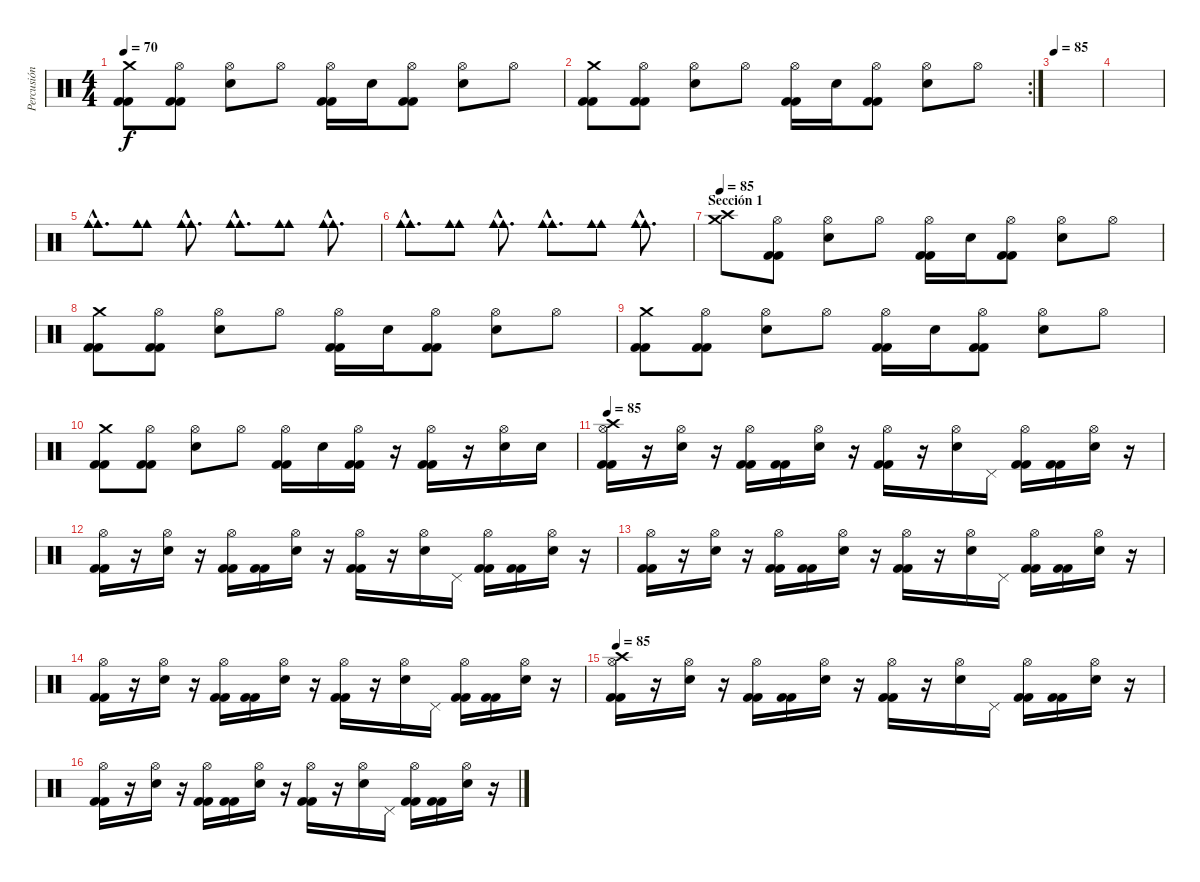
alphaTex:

\track ("Percusión" "Percusión") {instrument percussion}
\staff {score}
\articulation defaults
\ts (4 4)
\tempo 70
\clef neutral
\ks c
("Crash medium (hit)" "Kick (hit) 2" "Kick (hit) 2").8{dy f} ("Hi-Hat (open)" "Kick (hit) 2" "Kick (hit) 2").8 ("Hi-Hat (open)" "Electric Snare (hit)").8 "Hi-Hat (open)".8 ("Hi-Hat (open)" "Kick (hit) 2" "Kick (hit) 2").16 "Electric Snare (hit)".16 ("Hi-Hat (open)" "Kick (hit) 2" "Kick (hit) 2").8 ("Hi-Hat (open)" "Electric Snare (hit)").8 "Hi-Hat (open)".8 |
\rc 2
("Crash medium (hit)" "Kick (hit) 2" "Kick (hit) 2").8 ("Hi-Hat (open)" "Kick (hit) 2" "Kick (hit) 2").8 ("Hi-Hat (open)" "Electric Snare (hit)").8 "Hi-Hat (open)".8 ("Hi-Hat (open)" "Kick (hit) 2" "Kick (hit) 2").16 "Electric Snare (hit)".16 ("Hi-Hat (open)" "Kick (hit) 2" "Kick (hit) 2").8 ("Hi-Hat (open)" "Electric Snare (hit)").8 "Hi-Hat (open)".8 |
\tempo 85
|
|
("Cowbell medium (hit)"{hac} "Cowbell medium (hit)"{hac}).8{d} ("Cowbell medium (hit)" "Cowbell medium (hit)").8 ("Cowbell medium (hit)"{hac} "Cowbell medium (hit)"{hac}).8{d} ("Cowbell medium (hit)"{hac} "Cowbell medium (hit)"{hac}).8{d} ("Cowbell medium (hit)" "Cowbell medium (hit)").8 ("Cowbell medium (hit)"{hac} "Cowbell medium (hit)"{hac}).8{d} |
("Cowbell medium (hit)"{hac} "Cowbell medium (hit)"{hac}).8{d} ("Cowbell medium (hit)" "Cowbell medium (hit)").8 ("Cowbell medium (hit)"{hac} "Cowbell medium (hit)"{hac}).8{d} ("Cowbell medium (hit)"{hac} "Cowbell medium (hit)"{hac}).8{d} ("Cowbell medium (hit)" "Cowbell medium (hit)").8 ("Cowbell medium (hit)"{hac} "Cowbell medium (hit)"{hac}).8{d} |
\section ("" "Sección 1")
\tempo 85
("Crash high (hit)" "Crash medium (hit)").8 ("Hi-Hat (open)" "Kick (hit) 2" "Kick (hit) 2").8 ("Hi-Hat (open)" "Electric Snare (hit)").8 "Hi-Hat (open)".8 ("Hi-Hat (open)" "Kick (hit) 2" "Kick (hit) 2").16 "Electric Snare (hit)".16 ("Hi-Hat (open)" "Kick (hit) 2" "Kick (hit) 2").8 ("Hi-Hat (open)" "Electric Snare (hit)").8 "Hi-Hat (open)".8 |
("Crash medium (hit)" "Kick (hit) 2" "Kick (hit) 2").8 ("Hi-Hat (open)" "Kick (hit) 2" "Kick (hit) 2").8 ("Hi-Hat (open)" "Electric Snare (hit)").8 "Hi-Hat (open)".8 ("Hi-Hat (open)" "Kick (hit) 2" "Kick (hit) 2").16 "Electric Snare (hit)".16 ("Hi-Hat (open)" "Kick (hit) 2" "Kick (hit) 2").8 ("Hi-Hat (open)" "Electric Snare (hit)").8 "Hi-Hat (open)".8 |
("Crash medium (hit)" "Kick (hit) 2" "Kick (hit) 2").8 ("Hi-Hat (open)" "Kick (hit) 2" "Kick (hit) 2").8 ("Hi-Hat (open)" "Electric Snare (hit)").8 "Hi-Hat (open)".8 ("Hi-Hat (open)" "Kick (hit) 2" "Kick (hit) 2").16 "Electric Snare (hit)".16 ("Hi-Hat (open)" "Kick (hit) 2" "Kick (hit) 2").8 ("Hi-Hat (open)" "Electric Snare (hit)").8 "Hi-Hat (open)".8 |
("Crash medium (hit)" "Kick (hit) 2" "Kick (hit) 2").8 ("Hi-Hat (open)" "Kick (hit) 2" "Kick (hit) 2").8 ("Hi-Hat (open)" "Electric Snare (hit)").8 "Hi-Hat (open)".8 ("Hi-Hat (open)" "Kick (hit) 2" "Kick (hit) 2").16 "Electric Snare (hit)".16 ("Hi-Hat (open)" "Kick (hit) 2" "Kick (hit) 2").16 r.16 ("Hi-Hat (open)" "Kick (hit) 2" "Kick (hit) 2").16 r.16 ("Hi-Hat (open)" "Electric Snare (hit)").16 "Electric Snare (hit)".16 |
\tempo 85
("Crash high (hit)" "Hi-Hat (open)" "Kick (hit) 2" "Kick (hit) 2").16 r.16 ("Snare (hit) 2" "Hi-Hat (open)").16 r.16 ("Hi-Hat (open)" "Kick (hit) 2" "Kick (hit) 2").16 ("Kick (hit) 2" "Kick (hit) 2").16 ("Hi-Hat (open)" "Snare (hit) 2").16 r.16 ("Hi-Hat (open)" "Kick (hit) 2" "Kick (hit) 2").16 r.16 ("Hi-Hat (open)" "Snare (hit) 2").16 "Pedal Hi-Hat (hit)".16 ("Hi-Hat (open)" "Kick (hit) 2" "Kick (hit) 2").16 ("Kick (hit) 2" "Kick (hit) 2").16 ("Hi-Hat (open)" "Snare (hit) 2").16 r.16 |
("Hi-Hat (open)" "Kick (hit) 2" "Kick (hit) 2").16 r.16 ("Snare (hit) 2" "Hi-Hat (open)").16 r.16 ("Hi-Hat (open)" "Kick (hit) 2" "Kick (hit) 2").16 ("Kick (hit) 2" "Kick (hit) 2").16 ("Hi-Hat (open)" "Snare (hit) 2").16 r.16 ("Hi-Hat (open)" "Kick (hit) 2" "Kick (hit) 2").16 r.16 ("Hi-Hat (open)" "Snare (hit) 2").16 "Pedal Hi-Hat (hit)".16 ("Hi-Hat (open)" "Kick (hit) 2" "Kick (hit) 2").16 ("Kick (hit) 2" "Kick (hit) 2").16 ("Hi-Hat (open)" "Snare (hit) 2").16 r.16 |
("Hi-Hat (open)" "Kick (hit) 2" "Kick (hit) 2").16 r.16 ("Snare (hit) 2" "Hi-Hat (open)").16 r.16 ("Hi-Hat (open)" "Kick (hit) 2" "Kick (hit) 2").16 ("Kick (hit) 2" "Kick (hit) 2").16 ("Hi-Hat (open)" "Snare (hit) 2").16 r.16 ("Hi-Hat (open)" "Kick (hit) 2" "Kick (hit) 2").16 r.16 ("Hi-Hat (open)" "Snare (hit) 2").16 "Pedal Hi-Hat (hit)".16 ("Hi-Hat (open)" "Kick (hit) 2" "Kick (hit) 2").16 ("Kick (hit) 2" "Kick (hit) 2").16 ("Hi-Hat (open)" "Snare (hit) 2").16 r.16 |
("Hi-Hat (open)" "Kick (hit) 2" "Kick (hit) 2").16 r.16 ("Snare (hit) 2" "Hi-Hat (open)").16 r.16 ("Hi-Hat (open)" "Kick (hit) 2" "Kick (hit) 2").16 ("Kick (hit) 2" "Kick (hit) 2").16 ("Hi-Hat (open)" "Snare (hit) 2").16 r.16 ("Hi-Hat (open)" "Kick (hit) 2" "Kick (hit) 2").16 r.16 ("Hi-Hat (open)" "Snare (hit) 2").16 "Pedal Hi-Hat (hit)".16 ("Hi-Hat (open)" "Kick (hit) 2" "Kick (hit) 2").16 ("Kick (hit) 2" "Kick (hit) 2").16 ("Hi-Hat (open)" "Snare (hit) 2").16 r.16 |
\tempo 85
("Crash high (hit)" "Hi-Hat (open)" "Kick (hit) 2" "Kick (hit) 2").16 r.16 ("Snare (hit) 2" "Hi-Hat (open)").16 r.16 ("Hi-Hat (open)" "Kick (hit) 2" "Kick (hit) 2").16 ("Kick (hit) 2" "Kick (hit) 2").16 ("Hi-Hat (open)" "Snare (hit) 2").16 r.16 ("Hi-Hat (open)" "Kick (hit) 2" "Kick (hit) 2").16 r.16 ("Hi-Hat (open)" "Snare (hit) 2").16 "Pedal Hi-Hat (hit)".16 ("Hi-Hat (open)" "Kick (hit) 2" "Kick (hit) 2").16 ("Kick (hit) 2" "Kick (hit) 2").16 ("Hi-Hat (open)" "Snare (hit) 2").16 r.16 |
("Hi-Hat (open)" "Kick (hit) 2" "Kick (hit) 2").16 r.16 ("Snare (hit) 2" "Hi-Hat (open)").16 r.16 ("Hi-Hat (open)" "Kick (hit) 2" "Kick (hit) 2").16 ("Kick (hit) 2" "Kick (hit) 2").16 ("Hi-Hat (open)" "Snare (hit) 2").16 r.16 ("Hi-Hat (open)" "Kick (hit) 2" "Kick (hit) 2").16 r.16 ("Hi-Hat (open)" "Snare (hit) 2").16 "Pedal Hi-Hat (hit)".16 ("Hi-Hat (open)" "Kick (hit) 2" "Kick (hit) 2").16 ("Kick (hit) 2" "Kick (hit) 2").16 ("Hi-Hat (open)" "Snare (hit) 2").16 r.16
